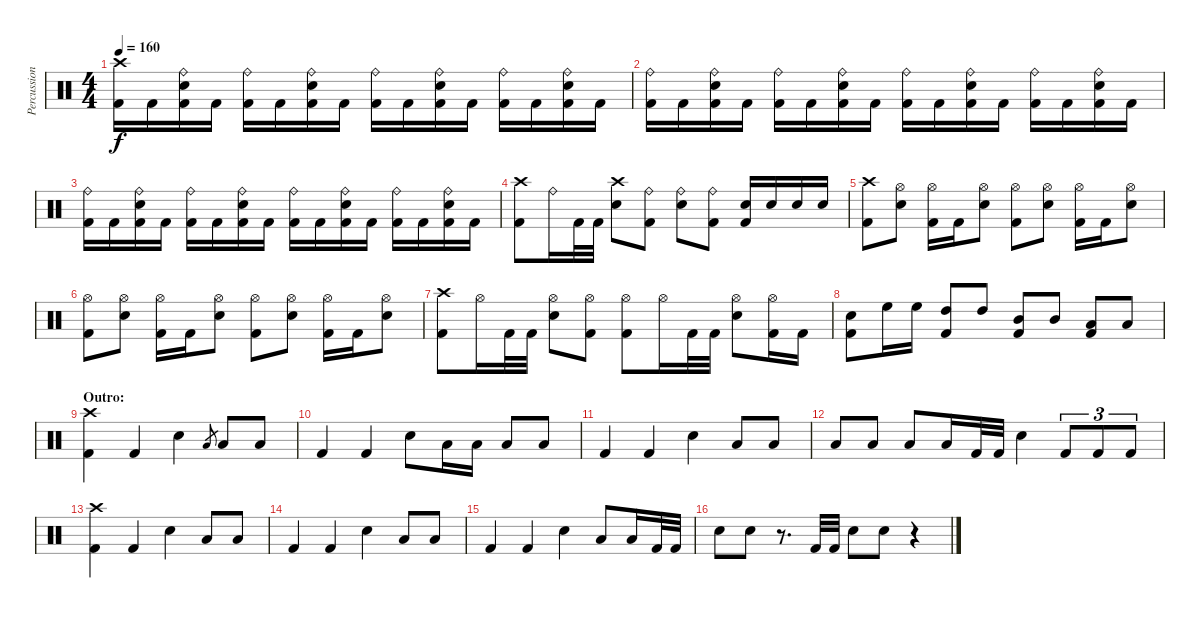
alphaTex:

\track ("Percussion" "Percussion") {instrument percussion}
\staff {score}
\articulation defaults
\ts (4 4)
\tempo 160
\clef neutral
\ks c
("Crash high (hit)" "Kick (hit) 2").16{dy f} "Kick (hit) 2".16 ("Ride (bell)" "Electric Snare (hit)" "Kick (hit) 2").16 "Kick (hit) 2".16 ("Ride (bell)" "Kick (hit) 2").16 "Kick (hit) 2".16 ("Ride (bell)" "Electric Snare (hit)" "Kick (hit) 2").16 "Kick (hit) 2".16 ("Ride (bell)" "Kick (hit) 2").16 "Kick (hit) 2".16 ("Ride (bell)" "Electric Snare (hit)" "Kick (hit) 2").16 "Kick (hit) 2".16 ("Ride (bell)" "Kick (hit) 2").16 "Kick (hit) 2".16 ("Ride (bell)" "Electric Snare (hit)" "Kick (hit) 2").16 "Kick (hit) 2".16 |
("Ride (bell)" "Kick (hit) 2").16 "Kick (hit) 2".16 ("Ride (bell)" "Electric Snare (hit)" "Kick (hit) 2").16 "Kick (hit) 2".16 ("Ride (bell)" "Kick (hit) 2").16 "Kick (hit) 2".16 ("Ride (bell)" "Electric Snare (hit)" "Kick (hit) 2").16 "Kick (hit) 2".16 ("Ride (bell)" "Kick (hit) 2").16 "Kick (hit) 2".16 ("Ride (bell)" "Electric Snare (hit)" "Kick (hit) 2").16 "Kick (hit) 2".16 ("Ride (bell)" "Kick (hit) 2").16 "Kick (hit) 2".16 ("Ride (bell)" "Electric Snare (hit)" "Kick (hit) 2").16 "Kick (hit) 2".16 |
("Ride (bell)" "Kick (hit) 2").16 "Kick (hit) 2".16 ("Ride (bell)" "Electric Snare (hit)" "Kick (hit) 2").16 "Kick (hit) 2".16 ("Ride (bell)" "Kick (hit) 2").16 "Kick (hit) 2".16 ("Ride (bell)" "Electric Snare (hit)" "Kick (hit) 2").16 "Kick (hit) 2".16 ("Ride (bell)" "Kick (hit) 2").16 "Kick (hit) 2".16 ("Ride (bell)" "Electric Snare (hit)" "Kick (hit) 2").16 "Kick (hit) 2".16 ("Ride (bell)" "Kick (hit) 2").16 "Kick (hit) 2".16 ("Ride (bell)" "Electric Snare (hit)" "Kick (hit) 2").16 "Kick (hit) 2".16 |
("Crash high (hit)" "Kick (hit) 2").8 "Ride (bell)".16 "Kick (hit) 2".32 "Kick (hit) 2".32 ("Crash high (hit)" "Electric Snare (hit)").8 ("Ride (bell)" "Kick (hit) 2").8 ("Ride (bell)" "Electric Snare (hit)").8 ("Ride (bell)" "Kick (hit) 2").8 ("Electric Snare (hit)" "Kick (hit) 2").16 "Electric Snare (hit)".16 "Electric Snare (hit)".16 "Electric Snare (hit)".16 |
("Crash high (hit)" "Kick (hit) 2").8 ("Hi-Hat (open)" "Electric Snare (hit)").8 ("Hi-Hat (open)" "Kick (hit) 2").16 "Kick (hit) 2".16 ("Hi-Hat (open)" "Electric Snare (hit)").8 ("Hi-Hat (open)" "Kick (hit) 2").8 ("Hi-Hat (open)" "Electric Snare (hit)").8 ("Hi-Hat (open)" "Kick (hit) 2").16 "Kick (hit) 2".16 ("Hi-Hat (open)" "Electric Snare (hit)").8 |
("Hi-Hat (open)" "Kick (hit) 2").8 ("Hi-Hat (open)" "Electric Snare (hit)").8 ("Hi-Hat (open)" "Kick (hit) 2").16 "Kick (hit) 2".16 ("Hi-Hat (open)" "Electric Snare (hit)").8 ("Hi-Hat (open)" "Kick (hit) 2").8 ("Hi-Hat (open)" "Electric Snare (hit)").8 ("Hi-Hat (open)" "Kick (hit) 2").16 "Kick (hit) 2".16 ("Hi-Hat (open)" "Electric Snare (hit)").8 |
("Crash high (hit)" "Kick (hit) 2").8 "Hi-Hat (open)".16 "Kick (hit) 2".32 "Kick (hit) 2".32 ("Hi-Hat (open)" "Electric Snare (hit)").8 ("Hi-Hat (open)" "Kick (hit) 2").8 ("Hi-Hat (open)" "Kick (hit) 2").8 "Hi-Hat (open)".16 "Kick (hit) 2".32 "Kick (hit) 2".32 ("Hi-Hat (open)" "Electric Snare (hit)").8 ("Hi-Hat (open)" "Kick (hit) 2").16 "Kick (hit) 2".16 |
("Electric Snare (hit)" "Kick (hit) 2").8 "High Floor Tom (hit)".16 "High Floor Tom (hit)".16 ("High Tom (hit)" "Kick (hit) 2").8 "High Tom (hit)".8 ("Mid Tom (hit)" "Kick (hit) 2").8 "Mid Tom (hit)".8 ("Low Tom (hit)" "Kick (hit) 2").8 "Low Tom (hit)".8 |
\section ("" "Outro:")
("Crash high (hit)" "Kick (hit) 2").4 "Kick (hit) 2".4 "Electric Snare (hit)".4 "Low Floor Tom (hit)".8{gr} "Low Floor Tom (hit)".8 "Low Floor Tom (hit)".8 |
"Kick (hit) 2".4 "Kick (hit) 2".4 "Electric Snare (hit)".8 "Low Floor Tom (hit)".16 "Low Floor Tom (hit)".16 "Low Floor Tom (hit)".8 "Low Floor Tom (hit)".8 |
"Kick (hit) 2".4 "Kick (hit) 2".4 "Electric Snare (hit)".4 "Low Floor Tom (hit)".8 "Low Floor Tom (hit)".8 |
"Low Floor Tom (hit)".8 "Low Floor Tom (hit)".8 "Low Floor Tom (hit)".8 "Low Floor Tom (hit)".16 "Kick (hit) 2".32 "Kick (hit) 2".32 "Electric Snare (hit)".4 "Kick (hit) 2".8{tu (3 2)} "Kick (hit) 2".8{tu (3 2)} "Kick (hit) 2".8{tu (3 2)} |
("Crash high (hit)" "Kick (hit) 2").4 "Kick (hit) 2".4 "Electric Snare (hit)".4 "Low Floor Tom (hit)".8 "Low Floor Tom (hit)".8 |
"Kick (hit) 2".4 "Kick (hit) 2".4 "Electric Snare (hit)".4 "Low Floor Tom (hit)".8 "Low Floor Tom (hit)".8 |
"Kick (hit) 2".4 "Kick (hit) 2".4 "Electric Snare (hit)".4 "Low Floor Tom (hit)".8 "Low Floor Tom (hit)".16 "Kick (hit) 2".32 "Kick (hit) 2".32 |
"Electric Snare (hit)".8 "Electric Snare (hit)".8 r.8{d} "Kick (hit) 2".32 "Kick (hit) 2".32 "Electric Snare (hit)".8 "Electric Snare (hit)".8 r.4
